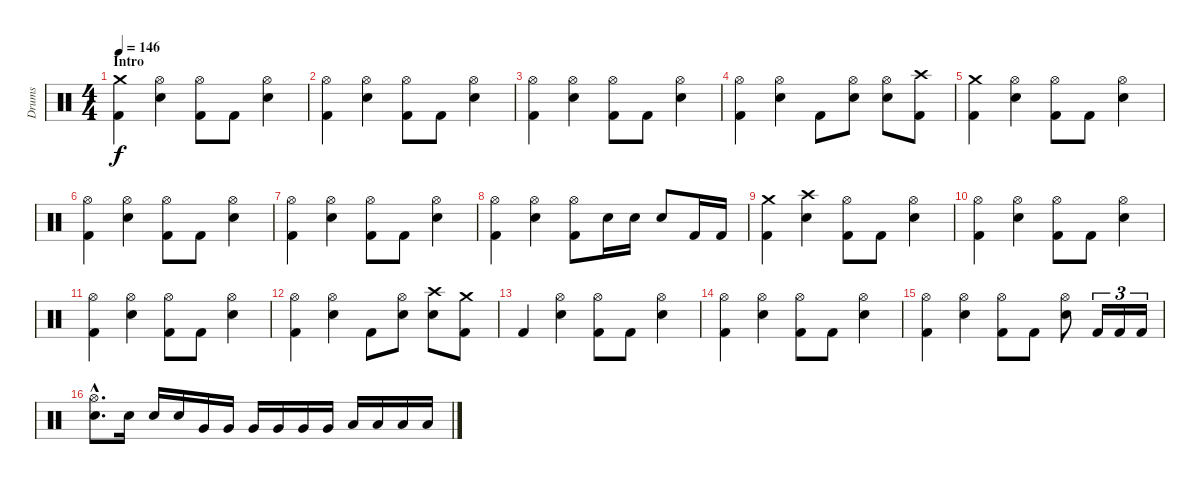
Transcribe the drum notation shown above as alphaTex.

\track ("Drums" "Drums") {instrument percussion}
\staff {score}
\articulation defaults
\ts (4 4)
\section ("" "Intro")
\tempo 146
\clef neutral
\ks c
("Crash medium (hit)" "Kick (hit) 2").4{dy f} ("Hi-Hat (open)" "Snare (hit) 2").4 ("Hi-Hat (open)" "Kick (hit) 2").8 "Kick (hit) 2".8 ("Hi-Hat (open)" "Snare (hit) 2").4 |
("Hi-Hat (open)" "Kick (hit) 2").4 ("Hi-Hat (open)" "Snare (hit) 2").4 ("Hi-Hat (open)" "Kick (hit) 2").8 "Kick (hit) 2".8 ("Hi-Hat (open)" "Snare (hit) 2").4 |
("Hi-Hat (open)" "Kick (hit) 2").4 ("Hi-Hat (open)" "Snare (hit) 2").4 ("Hi-Hat (open)" "Kick (hit) 2").8 "Kick (hit) 2".8 ("Hi-Hat (open)" "Snare (hit) 2").4 |
("Hi-Hat (open)" "Kick (hit) 2").4 ("Hi-Hat (open)" "Snare (hit) 2").4 "Kick (hit) 2".8 ("Hi-Hat (open)" "Snare (hit) 2").8 ("Hi-Hat (open)" "Snare (hit) 2").8 ("Crash high (hit)" "Kick (hit) 2").8 |
("Crash medium (hit)" "Kick (hit) 2").4 ("Hi-Hat (open)" "Snare (hit) 2").4 ("Hi-Hat (open)" "Kick (hit) 2").8 "Kick (hit) 2".8 ("Hi-Hat (open)" "Snare (hit) 2").4 |
("Hi-Hat (open)" "Kick (hit) 2").4 ("Hi-Hat (open)" "Snare (hit) 2").4 ("Hi-Hat (open)" "Kick (hit) 2").8 "Kick (hit) 2".8 ("Hi-Hat (open)" "Snare (hit) 2").4 |
("Hi-Hat (open)" "Kick (hit) 2").4 ("Hi-Hat (open)" "Snare (hit) 2").4 ("Hi-Hat (open)" "Kick (hit) 2").8 "Kick (hit) 2".8 ("Hi-Hat (open)" "Snare (hit) 2").4 |
("Hi-Hat (open)" "Kick (hit) 2").4 ("Hi-Hat (open)" "Snare (hit) 2").4 ("Hi-Hat (open)" "Kick (hit) 2").8 "Snare (hit) 2".16 "Snare (hit) 2".16 "Snare (hit) 2".8 "Kick (hit) 2".16 "Kick (hit) 2".16 |
("Crash medium (hit)" "Kick (hit) 2").4 ("Crash high (hit)" "Snare (hit) 2").4 ("Hi-Hat (open)" "Kick (hit) 2").8 "Kick (hit) 2".8 ("Hi-Hat (open)" "Snare (hit) 2").4 |
("Hi-Hat (open)" "Kick (hit) 2").4 ("Hi-Hat (open)" "Snare (hit) 2").4 ("Hi-Hat (open)" "Kick (hit) 2").8 "Kick (hit) 2".8 ("Hi-Hat (open)" "Snare (hit) 2").4 |
("Hi-Hat (open)" "Kick (hit) 2").4 ("Hi-Hat (open)" "Snare (hit) 2").4 ("Hi-Hat (open)" "Kick (hit) 2").8 "Kick (hit) 2".8 ("Hi-Hat (open)" "Snare (hit) 2").4 |
("Hi-Hat (open)" "Kick (hit) 2").4 ("Hi-Hat (open)" "Snare (hit) 2").4 "Kick (hit) 2".8 ("Hi-Hat (open)" "Snare (hit) 2").8 ("Crash high (hit)" "Snare (hit) 2").8 ("Crash medium (hit)" "Kick (hit) 2").8 |
"Kick (hit) 2".4 ("Hi-Hat (open)" "Snare (hit) 2").4 ("Hi-Hat (open)" "Kick (hit) 2").8 "Kick (hit) 2".8 ("Hi-Hat (open)" "Snare (hit) 2").4 |
("Hi-Hat (open)" "Kick (hit) 2").4 ("Hi-Hat (open)" "Snare (hit) 2").4 ("Hi-Hat (open)" "Kick (hit) 2").8 "Kick (hit) 2".8 ("Hi-Hat (open)" "Snare (hit) 2").4 |
("Hi-Hat (open)" "Kick (hit) 2").4 ("Hi-Hat (open)" "Snare (hit) 2").4 ("Hi-Hat (open)" "Kick (hit) 2").8 "Kick (hit) 2".8 ("Hi-Hat (open)" "Snare (hit) 2").8 "Kick (hit) 2".16{tu (3 2)} "Kick (hit) 2".16{tu (3 2)} "Kick (hit) 2".16{tu (3 2)} |
("Hi-Hat (open)"{hac} "Snare (hit) 2"{hac}).8{d} "Snare (hit) 2".16 "Snare (hit) 2".16 "Snare (hit) 2".16 "Very Low Tom (hit)".16 "Very Low Tom (hit)".16 "Very Low Tom (hit)".16 "Very Low Tom (hit)".16 "Very Low Tom (hit)".16 "Very Low Tom (hit)".16 "Low Floor Tom (hit)".16 "Low Floor Tom (hit)".16 "Low Floor Tom (hit)".16 "Low Floor Tom (hit)".16
